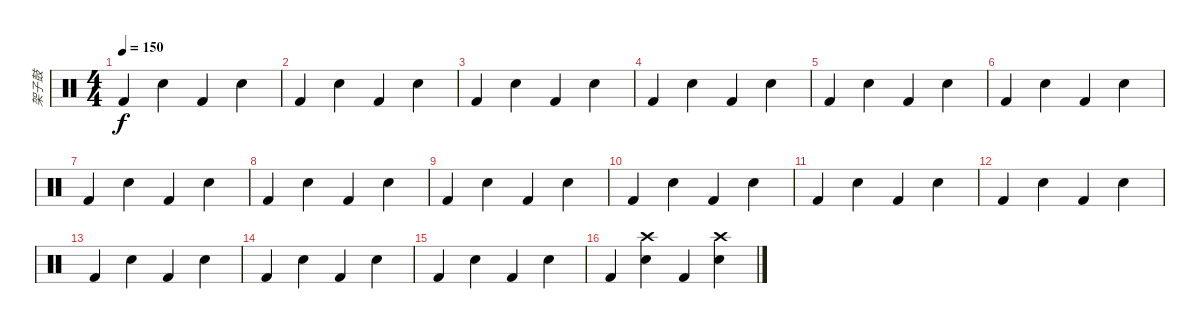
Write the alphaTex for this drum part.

\track ("架子鼓" "架子鼓") {instrument percussion}
\staff {score}
\articulation defaults
\ts (4 4)
\tempo 150
\clef neutral
\ks c "Kick (hit) 2".4{dy f} "Snare (hit) 2".4 "Kick (hit) 2".4 "Snare (hit) 2".4
|
"Kick (hit) 2".4 "Snare (hit) 2".4 "Kick (hit) 2".4 "Snare (hit) 2".4 |
"Kick (hit) 2".4 "Snare (hit) 2".4 "Kick (hit) 2".4 "Snare (hit) 2".4 |
"Kick (hit) 2".4 "Snare (hit) 2".4 "Kick (hit) 2".4 "Snare (hit) 2".4 |
"Kick (hit) 2".4 "Snare (hit) 2".4 "Kick (hit) 2".4 "Snare (hit) 2".4 |
"Kick (hit) 2".4 "Snare (hit) 2".4 "Kick (hit) 2".4 "Snare (hit) 2".4 |
"Kick (hit) 2".4 "Snare (hit) 2".4 "Kick (hit) 2".4 "Snare (hit) 2".4 |
"Kick (hit) 2".4 "Snare (hit) 2".4 "Kick (hit) 2".4 "Snare (hit) 2".4 |
"Kick (hit) 2".4 "Snare (hit) 2".4 "Kick (hit) 2".4 "Snare (hit) 2".4 |
"Kick (hit) 2".4 "Snare (hit) 2".4 "Kick (hit) 2".4 "Snare (hit) 2".4 |
"Kick (hit) 2".4 "Snare (hit) 2".4 "Kick (hit) 2".4 "Snare (hit) 2".4 |
"Kick (hit) 2".4 "Snare (hit) 2".4 "Kick (hit) 2".4 "Snare (hit) 2".4 |
"Kick (hit) 2".4 "Snare (hit) 2".4 "Kick (hit) 2".4 "Snare (hit) 2".4 |
"Kick (hit) 2".4 "Snare (hit) 2".4 "Kick (hit) 2".4 "Snare (hit) 2".4 |
"Kick (hit) 2".4 "Snare (hit) 2".4 "Kick (hit) 2".4 "Snare (hit) 2".4 |
"Kick (hit) 2".4 ("Crash high (hit)" "Snare (hit) 2").4 "Kick (hit) 2".4 ("Crash high (hit)" "Snare (hit) 2").4
